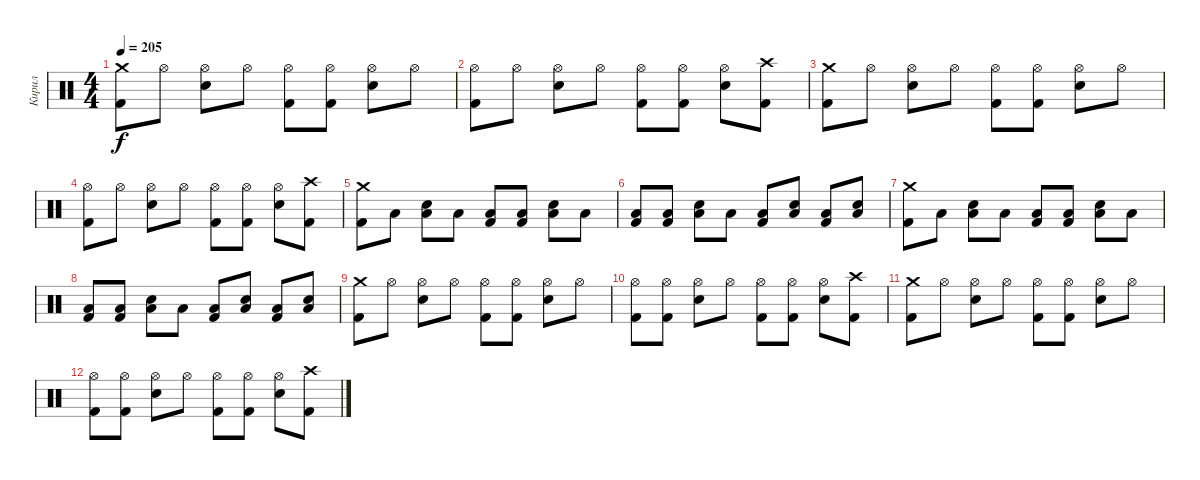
\track ("Кирил" "Кирил") {instrument percussion}
\staff {score}
\articulation defaults
\ts (4 4)
\tempo 205
\clef neutral
\ks c
("Crash medium (hit)" "Kick (hit) 2").8{dy f} "Hi-Hat (open)".8 ("Hi-Hat (open)" "Electric Snare (hit)").8 "Hi-Hat (open)".8 ("Hi-Hat (open)" "Kick (hit) 2").8 ("Hi-Hat (open)" "Kick (hit) 2").8 ("Hi-Hat (open)" "Electric Snare (hit)").8 "Hi-Hat (open)".8 |
("Hi-Hat (open)" "Kick (hit) 2").8 "Hi-Hat (open)".8 ("Hi-Hat (open)" "Electric Snare (hit)").8 "Hi-Hat (open)".8 ("Hi-Hat (open)" "Kick (hit) 2").8 ("Hi-Hat (open)" "Kick (hit) 2").8 ("Hi-Hat (open)" "Electric Snare (hit)").8 ("Crash high (hit)" "Kick (hit) 2").8 |
("Crash medium (hit)" "Kick (hit) 2").8 "Hi-Hat (open)".8 ("Hi-Hat (open)" "Electric Snare (hit)").8 "Hi-Hat (open)".8 ("Hi-Hat (open)" "Kick (hit) 2").8 ("Hi-Hat (open)" "Kick (hit) 2").8 ("Hi-Hat (open)" "Electric Snare (hit)").8 "Hi-Hat (open)".8 |
("Hi-Hat (open)" "Kick (hit) 2").8 "Hi-Hat (open)".8 ("Hi-Hat (open)" "Electric Snare (hit)").8 "Hi-Hat (open)".8 ("Hi-Hat (open)" "Kick (hit) 2").8 ("Hi-Hat (open)" "Kick (hit) 2").8 ("Hi-Hat (open)" "Electric Snare (hit)").8 ("Crash high (hit)" "Kick (hit) 2").8 |
("Crash medium (hit)" "Kick (hit) 2").8 "Low Floor Tom (hit)".8 ("Low Floor Tom (hit)" "Electric Snare (hit)").8 "Low Floor Tom (hit)".8 ("Low Floor Tom (hit)" "Kick (hit) 2").8 ("Low Floor Tom (hit)" "Kick (hit) 2").8 ("Low Floor Tom (hit)" "Electric Snare (hit)").8 "Low Floor Tom (hit)".8 |
("Low Floor Tom (hit)" "Kick (hit) 2").8 ("Low Floor Tom (hit)" "Kick (hit) 2").8 ("Low Floor Tom (hit)" "Electric Snare (hit)").8 "Low Floor Tom (hit)".8 ("Low Floor Tom (hit)" "Kick (hit) 2").8 ("Low Floor Tom (hit)" "Electric Snare (hit)").8 ("Low Floor Tom (hit)" "Kick (hit) 2").8 ("Low Floor Tom (hit)" "Electric Snare (hit)").8 |
("Crash medium (hit)" "Kick (hit) 2").8 "Low Floor Tom (hit)".8 ("Low Floor Tom (hit)" "Electric Snare (hit)").8 "Low Floor Tom (hit)".8 ("Low Floor Tom (hit)" "Kick (hit) 2").8 ("Low Floor Tom (hit)" "Kick (hit) 2").8 ("Low Floor Tom (hit)" "Electric Snare (hit)").8 "Low Floor Tom (hit)".8 |
("Low Floor Tom (hit)" "Kick (hit) 2").8 ("Low Floor Tom (hit)" "Kick (hit) 2").8 ("Low Floor Tom (hit)" "Electric Snare (hit)").8 "Low Floor Tom (hit)".8 ("Low Floor Tom (hit)" "Kick (hit) 2").8 ("Low Floor Tom (hit)" "Electric Snare (hit)").8 ("Low Floor Tom (hit)" "Kick (hit) 2").8 ("Low Floor Tom (hit)" "Electric Snare (hit)").8 |
("Crash medium (hit)" "Kick (hit) 2").8 "Hi-Hat (open)".8 ("Hi-Hat (open)" "Electric Snare (hit)").8 "Hi-Hat (open)".8 ("Hi-Hat (open)" "Kick (hit) 2").8 ("Hi-Hat (open)" "Kick (hit) 2").8 ("Hi-Hat (open)" "Electric Snare (hit)").8 "Hi-Hat (open)".8 |
("Hi-Hat (open)" "Kick (hit) 2").8 ("Hi-Hat (open)" "Kick (hit) 2").8 ("Hi-Hat (open)" "Electric Snare (hit)").8 "Hi-Hat (open)".8 ("Hi-Hat (open)" "Kick (hit) 2").8 ("Hi-Hat (open)" "Kick (hit) 2").8 ("Hi-Hat (open)" "Electric Snare (hit)").8 ("Crash high (hit)" "Kick (hit) 2").8 |
("Crash medium (hit)" "Kick (hit) 2").8 "Hi-Hat (open)".8 ("Hi-Hat (open)" "Electric Snare (hit)").8 "Hi-Hat (open)".8 ("Hi-Hat (open)" "Kick (hit) 2").8 ("Hi-Hat (open)" "Kick (hit) 2").8 ("Hi-Hat (open)" "Electric Snare (hit)").8 "Hi-Hat (open)".8 |
("Hi-Hat (open)" "Kick (hit) 2").8 ("Hi-Hat (open)" "Kick (hit) 2").8 ("Hi-Hat (open)" "Electric Snare (hit)").8 "Hi-Hat (open)".8 ("Hi-Hat (open)" "Kick (hit) 2").8 ("Hi-Hat (open)" "Kick (hit) 2").8 ("Hi-Hat (open)" "Electric Snare (hit)").8 ("Crash high (hit)" "Kick (hit) 2").8
